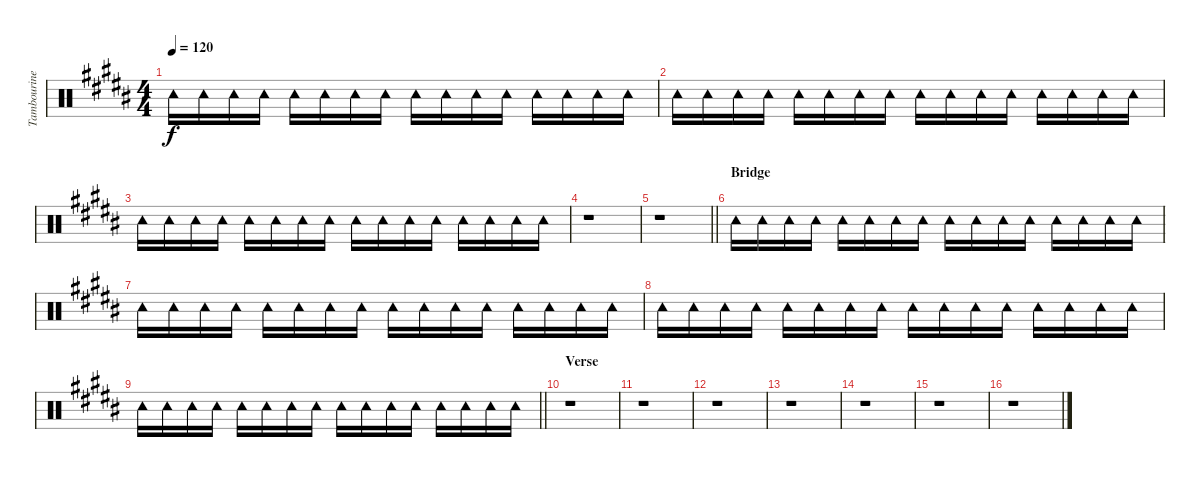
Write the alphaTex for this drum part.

\track ("Tambourine" "Tambourine") {instrument percussion}
\staff {score}
\articulation defaults
\ts (4 4)
\tempo 120
\clef neutral
\ks b "Tambourine (hit)".16{dy f} "Tambourine (hit)".16 "Tambourine (hit)".16 "Tambourine (hit)".16 "Tambourine (hit)".16 "Tambourine (hit)".16 "Tambourine (hit)".16 "Tambourine (hit)".16 "Tambourine (hit)".16 "Tambourine (hit)".16 "Tambourine (hit)".16 "Tambourine (hit)".16 "Tambourine (hit)".16 "Tambourine (hit)".16 "Tambourine (hit)".16 "Tambourine (hit)".16
|
"Tambourine (hit)".16 "Tambourine (hit)".16 "Tambourine (hit)".16 "Tambourine (hit)".16 "Tambourine (hit)".16 "Tambourine (hit)".16 "Tambourine (hit)".16 "Tambourine (hit)".16 "Tambourine (hit)".16 "Tambourine (hit)".16 "Tambourine (hit)".16 "Tambourine (hit)".16 "Tambourine (hit)".16 "Tambourine (hit)".16 "Tambourine (hit)".16 "Tambourine (hit)".16 |
"Tambourine (hit)".16 "Tambourine (hit)".16 "Tambourine (hit)".16 "Tambourine (hit)".16 "Tambourine (hit)".16 "Tambourine (hit)".16 "Tambourine (hit)".16 "Tambourine (hit)".16 "Tambourine (hit)".16 "Tambourine (hit)".16 "Tambourine (hit)".16 "Tambourine (hit)".16 "Tambourine (hit)".16 "Tambourine (hit)".16 "Tambourine (hit)".16 "Tambourine (hit)".16 |
r.1 |
\barLineRight lightlight
r.1 |
\section ("" "Bridge")
"Tambourine (hit)".16 "Tambourine (hit)".16 "Tambourine (hit)".16 "Tambourine (hit)".16 "Tambourine (hit)".16 "Tambourine (hit)".16 "Tambourine (hit)".16 "Tambourine (hit)".16 "Tambourine (hit)".16 "Tambourine (hit)".16 "Tambourine (hit)".16 "Tambourine (hit)".16 "Tambourine (hit)".16 "Tambourine (hit)".16 "Tambourine (hit)".16 "Tambourine (hit)".16 |
"Tambourine (hit)".16 "Tambourine (hit)".16 "Tambourine (hit)".16 "Tambourine (hit)".16 "Tambourine (hit)".16 "Tambourine (hit)".16 "Tambourine (hit)".16 "Tambourine (hit)".16 "Tambourine (hit)".16 "Tambourine (hit)".16 "Tambourine (hit)".16 "Tambourine (hit)".16 "Tambourine (hit)".16 "Tambourine (hit)".16 "Tambourine (hit)".16 "Tambourine (hit)".16 |
"Tambourine (hit)".16 "Tambourine (hit)".16 "Tambourine (hit)".16 "Tambourine (hit)".16 "Tambourine (hit)".16 "Tambourine (hit)".16 "Tambourine (hit)".16 "Tambourine (hit)".16 "Tambourine (hit)".16 "Tambourine (hit)".16 "Tambourine (hit)".16 "Tambourine (hit)".16 "Tambourine (hit)".16 "Tambourine (hit)".16 "Tambourine (hit)".16 "Tambourine (hit)".16 |
\barLineRight lightlight "Tambourine (hit)".16 "Tambourine (hit)".16 "Tambourine (hit)".16 "Tambourine (hit)".16 "Tambourine (hit)".16 "Tambourine (hit)".16 "Tambourine (hit)".16 "Tambourine (hit)".16 "Tambourine (hit)".16 "Tambourine (hit)".16 "Tambourine (hit)".16 "Tambourine (hit)".16 "Tambourine (hit)".16 "Tambourine (hit)".16 "Tambourine (hit)".16 "Tambourine (hit)".16
|
\section ("" "Verse")
r.1 |
r.1 |
r.1 |
r.1 |
r.1 |
r.1 |
r.1
